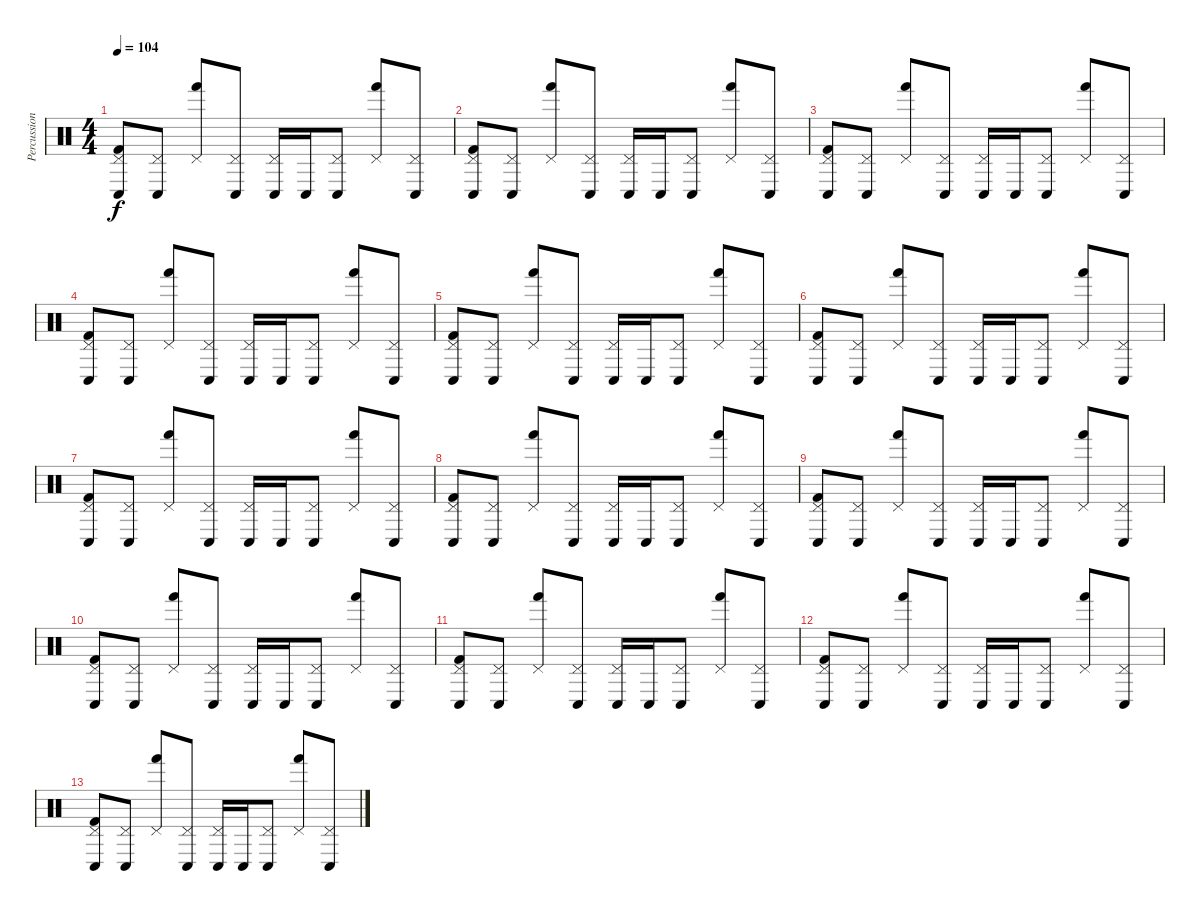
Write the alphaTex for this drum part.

\track ("Percussions" "Percussion") {instrument percussion}
\staff {score}
\articulation defaults
\ts (4 4)
\tempo 104
\clef neutral
\ks c
("Pedal Hi-Hat (hit)" "Conga low (hit)" "Kick (hit) 2").8{dy f} ("Pedal Hi-Hat (hit)" "Conga low (hit)").8 ("Pedal Hi-Hat (hit)" "Hand (hit)").8 ("Pedal Hi-Hat (hit)" "Conga low (hit)").8 ("Pedal Hi-Hat (hit)" "Conga low (hit)").16 "Conga low (hit)".16 ("Pedal Hi-Hat (hit)" "Conga low (hit)").8 ("Pedal Hi-Hat (hit)" "Hand (hit)").8 ("Pedal Hi-Hat (hit)" "Conga low (hit)").8 |
("Pedal Hi-Hat (hit)" "Conga low (hit)" "Kick (hit) 2").8 ("Pedal Hi-Hat (hit)" "Conga low (hit)").8 ("Pedal Hi-Hat (hit)" "Hand (hit)").8 ("Pedal Hi-Hat (hit)" "Conga low (hit)").8 ("Pedal Hi-Hat (hit)" "Conga low (hit)").16 "Conga low (hit)".16 ("Pedal Hi-Hat (hit)" "Conga low (hit)").8 ("Pedal Hi-Hat (hit)" "Hand (hit)").8 ("Pedal Hi-Hat (hit)" "Conga low (hit)").8 |
("Pedal Hi-Hat (hit)" "Conga low (hit)" "Kick (hit) 2").8 ("Pedal Hi-Hat (hit)" "Conga low (hit)").8 ("Pedal Hi-Hat (hit)" "Hand (hit)").8 ("Pedal Hi-Hat (hit)" "Conga low (hit)").8 ("Pedal Hi-Hat (hit)" "Conga low (hit)").16 "Conga low (hit)".16 ("Pedal Hi-Hat (hit)" "Conga low (hit)").8 ("Pedal Hi-Hat (hit)" "Hand (hit)").8 ("Pedal Hi-Hat (hit)" "Conga low (hit)").8 |
("Pedal Hi-Hat (hit)" "Conga low (hit)" "Kick (hit) 2").8 ("Pedal Hi-Hat (hit)" "Conga low (hit)").8 ("Pedal Hi-Hat (hit)" "Hand (hit)").8 ("Pedal Hi-Hat (hit)" "Conga low (hit)").8 ("Pedal Hi-Hat (hit)" "Conga low (hit)").16 "Conga low (hit)".16 ("Pedal Hi-Hat (hit)" "Conga low (hit)").8 ("Pedal Hi-Hat (hit)" "Hand (hit)").8 ("Pedal Hi-Hat (hit)" "Conga low (hit)").8 |
("Pedal Hi-Hat (hit)" "Conga low (hit)" "Kick (hit) 2").8 ("Pedal Hi-Hat (hit)" "Conga low (hit)").8 ("Pedal Hi-Hat (hit)" "Hand (hit)").8 ("Pedal Hi-Hat (hit)" "Conga low (hit)").8 ("Pedal Hi-Hat (hit)" "Conga low (hit)").16 "Conga low (hit)".16 ("Pedal Hi-Hat (hit)" "Conga low (hit)").8 ("Pedal Hi-Hat (hit)" "Hand (hit)").8 ("Pedal Hi-Hat (hit)" "Conga low (hit)").8 |
("Pedal Hi-Hat (hit)" "Conga low (hit)" "Kick (hit) 2").8 ("Pedal Hi-Hat (hit)" "Conga low (hit)").8 ("Pedal Hi-Hat (hit)" "Hand (hit)").8 ("Pedal Hi-Hat (hit)" "Conga low (hit)").8 ("Pedal Hi-Hat (hit)" "Conga low (hit)").16 "Conga low (hit)".16 ("Pedal Hi-Hat (hit)" "Conga low (hit)").8 ("Pedal Hi-Hat (hit)" "Hand (hit)").8 ("Pedal Hi-Hat (hit)" "Conga low (hit)").8 |
("Pedal Hi-Hat (hit)" "Conga low (hit)" "Kick (hit) 2").8 ("Pedal Hi-Hat (hit)" "Conga low (hit)").8 ("Pedal Hi-Hat (hit)" "Hand (hit)").8 ("Pedal Hi-Hat (hit)" "Conga low (hit)").8 ("Pedal Hi-Hat (hit)" "Conga low (hit)").16 "Conga low (hit)".16 ("Pedal Hi-Hat (hit)" "Conga low (hit)").8 ("Pedal Hi-Hat (hit)" "Hand (hit)").8 ("Pedal Hi-Hat (hit)" "Conga low (hit)").8 |
("Pedal Hi-Hat (hit)" "Conga low (hit)" "Kick (hit) 2").8 ("Pedal Hi-Hat (hit)" "Conga low (hit)").8 ("Pedal Hi-Hat (hit)" "Hand (hit)").8 ("Pedal Hi-Hat (hit)" "Conga low (hit)").8 ("Pedal Hi-Hat (hit)" "Conga low (hit)").16 "Conga low (hit)".16 ("Pedal Hi-Hat (hit)" "Conga low (hit)").8 ("Pedal Hi-Hat (hit)" "Hand (hit)").8 ("Pedal Hi-Hat (hit)" "Conga low (hit)").8 |
("Pedal Hi-Hat (hit)" "Conga low (hit)" "Kick (hit) 2").8 ("Pedal Hi-Hat (hit)" "Conga low (hit)").8 ("Pedal Hi-Hat (hit)" "Hand (hit)").8 ("Pedal Hi-Hat (hit)" "Conga low (hit)").8 ("Pedal Hi-Hat (hit)" "Conga low (hit)").16 "Conga low (hit)".16 ("Pedal Hi-Hat (hit)" "Conga low (hit)").8 ("Pedal Hi-Hat (hit)" "Hand (hit)").8 ("Pedal Hi-Hat (hit)" "Conga low (hit)").8 |
("Pedal Hi-Hat (hit)" "Conga low (hit)" "Kick (hit) 2").8 ("Pedal Hi-Hat (hit)" "Conga low (hit)").8 ("Pedal Hi-Hat (hit)" "Hand (hit)").8 ("Pedal Hi-Hat (hit)" "Conga low (hit)").8 ("Pedal Hi-Hat (hit)" "Conga low (hit)").16 "Conga low (hit)".16 ("Pedal Hi-Hat (hit)" "Conga low (hit)").8 ("Pedal Hi-Hat (hit)" "Hand (hit)").8 ("Pedal Hi-Hat (hit)" "Conga low (hit)").8 |
("Pedal Hi-Hat (hit)" "Conga low (hit)" "Kick (hit) 2").8 ("Pedal Hi-Hat (hit)" "Conga low (hit)").8 ("Pedal Hi-Hat (hit)" "Hand (hit)").8 ("Pedal Hi-Hat (hit)" "Conga low (hit)").8 ("Pedal Hi-Hat (hit)" "Conga low (hit)").16 "Conga low (hit)".16 ("Pedal Hi-Hat (hit)" "Conga low (hit)").8 ("Pedal Hi-Hat (hit)" "Hand (hit)").8 ("Pedal Hi-Hat (hit)" "Conga low (hit)").8 |
("Pedal Hi-Hat (hit)" "Conga low (hit)" "Kick (hit) 2").8 ("Pedal Hi-Hat (hit)" "Conga low (hit)").8 ("Pedal Hi-Hat (hit)" "Hand (hit)").8 ("Pedal Hi-Hat (hit)" "Conga low (hit)").8 ("Pedal Hi-Hat (hit)" "Conga low (hit)").16 "Conga low (hit)".16 ("Pedal Hi-Hat (hit)" "Conga low (hit)").8 ("Pedal Hi-Hat (hit)" "Hand (hit)").8 ("Pedal Hi-Hat (hit)" "Conga low (hit)").8 |
("Pedal Hi-Hat (hit)" "Conga low (hit)" "Kick (hit) 2").8 ("Pedal Hi-Hat (hit)" "Conga low (hit)").8 ("Pedal Hi-Hat (hit)" "Hand (hit)").8 ("Pedal Hi-Hat (hit)" "Conga low (hit)").8 ("Pedal Hi-Hat (hit)" "Conga low (hit)").16 "Conga low (hit)".16 ("Pedal Hi-Hat (hit)" "Conga low (hit)").8 ("Pedal Hi-Hat (hit)" "Hand (hit)").8 ("Pedal Hi-Hat (hit)" "Conga low (hit)").8
